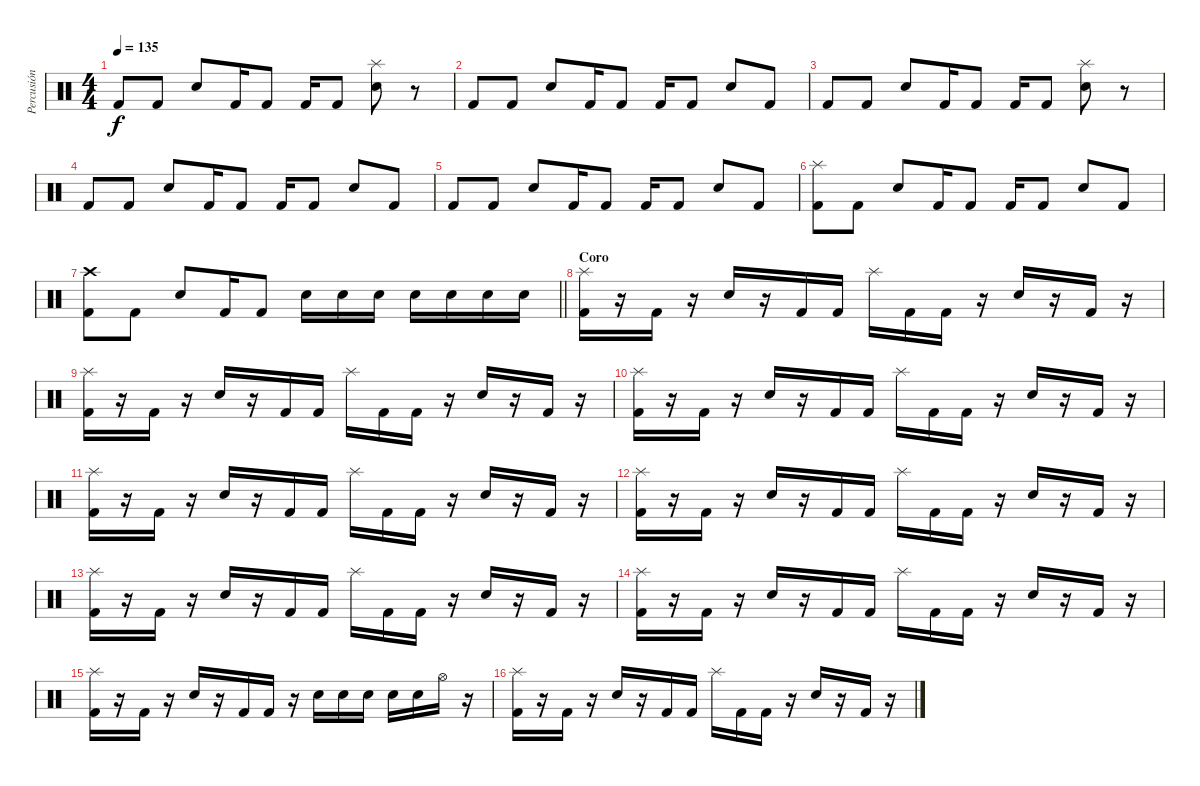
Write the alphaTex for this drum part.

\track ("Percusión" "Percusión") {instrument percussion}
\staff {score}
\articulation defaults
\ts (4 4)
\tempo 135
\clef neutral
\ks c "Kick (hit) 2".8{dy f} "Kick (hit) 2".8 "Electric Snare (hit)".8 "Kick (hit) 2".16 "Kick (hit) 2".8 "Kick (hit) 2".16 "Kick (hit) 2".8
("Splash (hit)" "Electric Snare (hit)").8 r.8 |
"Kick (hit) 2".8 "Kick (hit) 2".8 "Electric Snare (hit)".8 "Kick (hit) 2".16 "Kick (hit) 2".8 "Kick (hit) 2".16 "Kick (hit) 2".8 "Electric Snare (hit)".8 "Kick (hit) 2".8 |
"Kick (hit) 2".8 "Kick (hit) 2".8 "Electric Snare (hit)".8 "Kick (hit) 2".16 "Kick (hit) 2".8 "Kick (hit) 2".16 "Kick (hit) 2".8 ("Splash (hit)" "Electric Snare (hit)").8 r.8 |
"Kick (hit) 2".8 "Kick (hit) 2".8 "Electric Snare (hit)".8 "Kick (hit) 2".16 "Kick (hit) 2".8 "Kick (hit) 2".16 "Kick (hit) 2".8 "Electric Snare (hit)".8 "Kick (hit) 2".8 |
"Kick (hit) 2".8 "Kick (hit) 2".8 "Electric Snare (hit)".8 "Kick (hit) 2".16 "Kick (hit) 2".8 "Kick (hit) 2".16 "Kick (hit) 2".8 "Electric Snare (hit)".8 "Kick (hit) 2".8 |
("Splash (hit)" "Kick (hit) 2").8 "Kick (hit) 2".8 "Electric Snare (hit)".8 "Kick (hit) 2".16 "Kick (hit) 2".8 "Kick (hit) 2".16 "Kick (hit) 2".8 "Electric Snare (hit)".8 "Kick (hit) 2".8 |
\barLineRight lightlight
("Crash high (hit)" "Kick (hit) 2").8 "Kick (hit) 2".8 "Electric Snare (hit)".8 "Kick (hit) 2".16 "Kick (hit) 2".8 "Electric Snare (hit)".16 "Electric Snare (hit)".16 "Electric Snare (hit)".16 "Electric Snare (hit)".16 "Electric Snare (hit)".16 "Electric Snare (hit)".16 "Electric Snare (hit)".16 |
\section ("" "Coro")
("Splash (hit)" "Kick (hit) 2").16 r.16 "Kick (hit) 2".16 r.16 "Electric Snare (hit)".16 r.16 "Kick (hit) 2".16 "Kick (hit) 2".16 "Splash (hit)".16 "Kick (hit) 2".16 "Kick (hit) 2".16 r.16 "Electric Snare (hit)".16 r.16 "Kick (hit) 2".16 r.16 |
("Splash (hit)" "Kick (hit) 2").16 r.16 "Kick (hit) 2".16 r.16 "Electric Snare (hit)".16 r.16 "Kick (hit) 2".16 "Kick (hit) 2".16 "Splash (hit)".16 "Kick (hit) 2".16 "Kick (hit) 2".16 r.16 "Electric Snare (hit)".16 r.16 "Kick (hit) 2".16 r.16 |
("Splash (hit)" "Kick (hit) 2").16 r.16 "Kick (hit) 2".16 r.16 "Electric Snare (hit)".16 r.16 "Kick (hit) 2".16 "Kick (hit) 2".16 "Splash (hit)".16 "Kick (hit) 2".16 "Kick (hit) 2".16 r.16 "Electric Snare (hit)".16 r.16 "Kick (hit) 2".16 r.16 |
("Splash (hit)" "Kick (hit) 2").16 r.16 "Kick (hit) 2".16 r.16 "Electric Snare (hit)".16 r.16 "Kick (hit) 2".16 "Kick (hit) 2".16 "Splash (hit)".16 "Kick (hit) 2".16 "Kick (hit) 2".16 r.16 "Electric Snare (hit)".16 r.16 "Kick (hit) 2".16 r.16 |
("Splash (hit)" "Kick (hit) 2").16 r.16 "Kick (hit) 2".16 r.16 "Electric Snare (hit)".16 r.16 "Kick (hit) 2".16 "Kick (hit) 2".16 "Splash (hit)".16 "Kick (hit) 2".16 "Kick (hit) 2".16 r.16 "Electric Snare (hit)".16 r.16 "Kick (hit) 2".16 r.16 |
("Splash (hit)" "Kick (hit) 2").16 r.16 "Kick (hit) 2".16 r.16 "Electric Snare (hit)".16 r.16 "Kick (hit) 2".16 "Kick (hit) 2".16 "Splash (hit)".16 "Kick (hit) 2".16 "Kick (hit) 2".16 r.16 "Electric Snare (hit)".16 r.16 "Kick (hit) 2".16 r.16 |
("Splash (hit)" "Kick (hit) 2").16 r.16 "Kick (hit) 2".16 r.16 "Electric Snare (hit)".16 r.16 "Kick (hit) 2".16 "Kick (hit) 2".16 "Splash (hit)".16 "Kick (hit) 2".16 "Kick (hit) 2".16 r.16 "Electric Snare (hit)".16 r.16 "Kick (hit) 2".16 r.16 |
("Splash (hit)" "Kick (hit) 2").16 r.16 "Kick (hit) 2".16 r.16 "Electric Snare (hit)".16 r.16 "Kick (hit) 2".16 "Kick (hit) 2".16 r.16 "Electric Snare (hit)".16 "Electric Snare (hit)".16 "Electric Snare (hit)".16 "Electric Snare (hit)".16 "Electric Snare (hit)".16 "Hi-Hat (open)".16 r.16 |
("Splash (hit)" "Kick (hit) 2").16 r.16 "Kick (hit) 2".16 r.16 "Electric Snare (hit)".16 r.16 "Kick (hit) 2".16 "Kick (hit) 2".16 "Splash (hit)".16 "Kick (hit) 2".16 "Kick (hit) 2".16 r.16 "Electric Snare (hit)".16 r.16 "Kick (hit) 2".16 r.16
